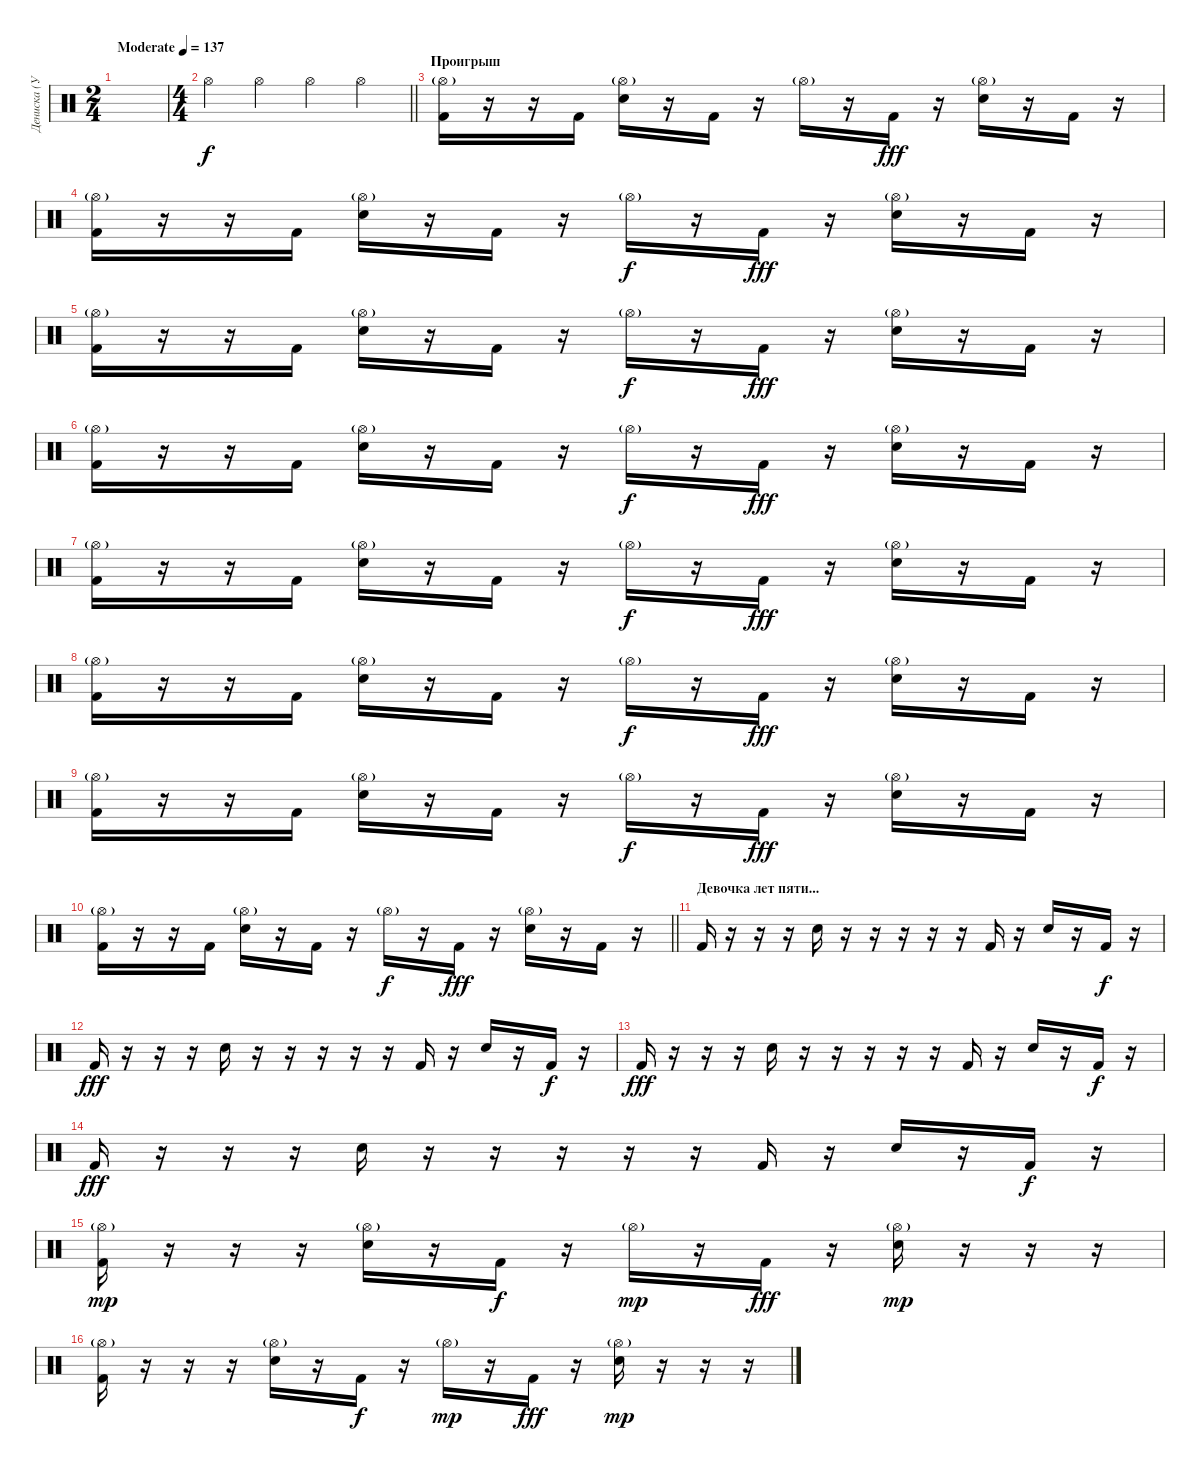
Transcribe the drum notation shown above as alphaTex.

\track ("Дениска (Ударник)" "Дениска (У") {instrument percussion}
\staff
\articulation defaults
\ts (2 4)
\tempo (137 "Moderate")
\clef neutral
\ks c
|
\ts (4 4)
\barLineRight lightlight "Hi-Hat (open)".4 "Hi-Hat (open)".4 "Hi-Hat (open)".4 "Hi-Hat (open)".4
|
\section ("" "Проигрыш")
("Kick (hit) 2" "Hi-Hat (open)"{g}).16 r.16 r.16 "Kick (hit) 2".16 ("Snare (hit) 2" "Hi-Hat (open)"{g}).16 r.16 "Kick (hit) 2".16 r.16 "Hi-Hat (open)"{g}.16{dy f} r.16 "Kick (hit) 2".16{dy fff} r.16 ("Snare (hit) 2" "Hi-Hat (open)"{g}).16 r.16 "Kick (hit) 2".16 r.16 |
("Kick (hit) 2" "Hi-Hat (open)"{g}).16 r.16 r.16 "Kick (hit) 2".16 ("Snare (hit) 2" "Hi-Hat (open)"{g}).16 r.16 "Kick (hit) 2".16 r.16 "Hi-Hat (open)"{g}.16{dy f} r.16 "Kick (hit) 2".16{dy fff} r.16 ("Snare (hit) 2" "Hi-Hat (open)"{g}).16 r.16 "Kick (hit) 2".16 r.16 |
("Kick (hit) 2" "Hi-Hat (open)"{g}).16 r.16 r.16 "Kick (hit) 2".16 ("Snare (hit) 2" "Hi-Hat (open)"{g}).16 r.16 "Kick (hit) 2".16 r.16 "Hi-Hat (open)"{g}.16{dy f} r.16 "Kick (hit) 2".16{dy fff} r.16 ("Snare (hit) 2" "Hi-Hat (open)"{g}).16 r.16 "Kick (hit) 2".16 r.16 |
("Kick (hit) 2" "Hi-Hat (open)"{g}).16 r.16 r.16 "Kick (hit) 2".16 ("Snare (hit) 2" "Hi-Hat (open)"{g}).16 r.16 "Kick (hit) 2".16 r.16 "Hi-Hat (open)"{g}.16{dy f} r.16 "Kick (hit) 2".16{dy fff} r.16 ("Snare (hit) 2" "Hi-Hat (open)"{g}).16 r.16 "Kick (hit) 2".16 r.16 |
("Kick (hit) 2" "Hi-Hat (open)"{g}).16 r.16 r.16 "Kick (hit) 2".16 ("Snare (hit) 2" "Hi-Hat (open)"{g}).16 r.16 "Kick (hit) 2".16 r.16 "Hi-Hat (open)"{g}.16{dy f} r.16 "Kick (hit) 2".16{dy fff} r.16 ("Snare (hit) 2" "Hi-Hat (open)"{g}).16 r.16 "Kick (hit) 2".16 r.16 |
("Kick (hit) 2" "Hi-Hat (open)"{g}).16 r.16 r.16 "Kick (hit) 2".16 ("Snare (hit) 2" "Hi-Hat (open)"{g}).16 r.16 "Kick (hit) 2".16 r.16 "Hi-Hat (open)"{g}.16{dy f} r.16 "Kick (hit) 2".16{dy fff} r.16 ("Snare (hit) 2" "Hi-Hat (open)"{g}).16 r.16 "Kick (hit) 2".16 r.16 |
("Kick (hit) 2" "Hi-Hat (open)"{g}).16 r.16 r.16 "Kick (hit) 2".16 ("Snare (hit) 2" "Hi-Hat (open)"{g}).16 r.16 "Kick (hit) 2".16 r.16 "Hi-Hat (open)"{g}.16{dy f} r.16 "Kick (hit) 2".16{dy fff} r.16 ("Snare (hit) 2" "Hi-Hat (open)"{g}).16 r.16 "Kick (hit) 2".16 r.16 |
\barLineRight lightlight
("Kick (hit) 2" "Hi-Hat (open)"{g}).16 r.16 r.16 "Kick (hit) 2".16 ("Snare (hit) 2" "Hi-Hat (open)"{g}).16 r.16 "Kick (hit) 2".16 r.16 "Hi-Hat (open)"{g}.16{dy f} r.16 "Kick (hit) 2".16{dy fff} r.16 ("Snare (hit) 2" "Hi-Hat (open)"{g}).16 r.16 "Kick (hit) 2".16 r.16 |
\section ("" "Девочка лет пяти...")
"Kick (hit) 2".16 r.16 r.16 r.16 "Snare (hit) 2".16 r.16 r.16 r.16 r.16 r.16 "Kick (hit) 2".16 r.16 "Snare (hit) 2".16 r.16 "Kick (hit) 2".16{dy f} r.16 |
"Kick (hit) 2".16{dy fff} r.16 r.16 r.16 "Snare (hit) 2".16 r.16 r.16 r.16 r.16 r.16 "Kick (hit) 2".16 r.16 "Snare (hit) 2".16 r.16 "Kick (hit) 2".16{dy f} r.16 |
"Kick (hit) 2".16{dy fff} r.16 r.16 r.16 "Snare (hit) 2".16 r.16 r.16 r.16 r.16 r.16 "Kick (hit) 2".16 r.16 "Snare (hit) 2".16 r.16 "Kick (hit) 2".16{dy f} r.16 |
"Kick (hit) 2".16{dy fff} r.16 r.16 r.16 "Snare (hit) 2".16 r.16 r.16 r.16 r.16 r.16 "Kick (hit) 2".16 r.16 "Snare (hit) 2".16 r.16 "Kick (hit) 2".16{dy f} r.16 |
("Kick (hit) 2" "Hi-Hat (open)"{g}).16{dy mp} r.16 r.16 r.16 ("Snare (hit) 2" "Hi-Hat (open)"{g}).16 r.16 "Kick (hit) 2".16{dy f} r.16 "Hi-Hat (open)"{g}.16{dy mp} r.16 "Kick (hit) 2".16{dy fff} r.16 ("Snare (hit) 2" "Hi-Hat (open)"{g}).16{dy mp} r.16 r.16 r.16 |
("Kick (hit) 2" "Hi-Hat (open)"{g}).16 r.16 r.16 r.16 ("Snare (hit) 2" "Hi-Hat (open)"{g}).16 r.16 "Kick (hit) 2".16{dy f} r.16 "Hi-Hat (open)"{g}.16{dy mp} r.16 "Kick (hit) 2".16{dy fff} r.16 ("Snare (hit) 2" "Hi-Hat (open)"{g}).16{dy mp} r.16 r.16 r.16
